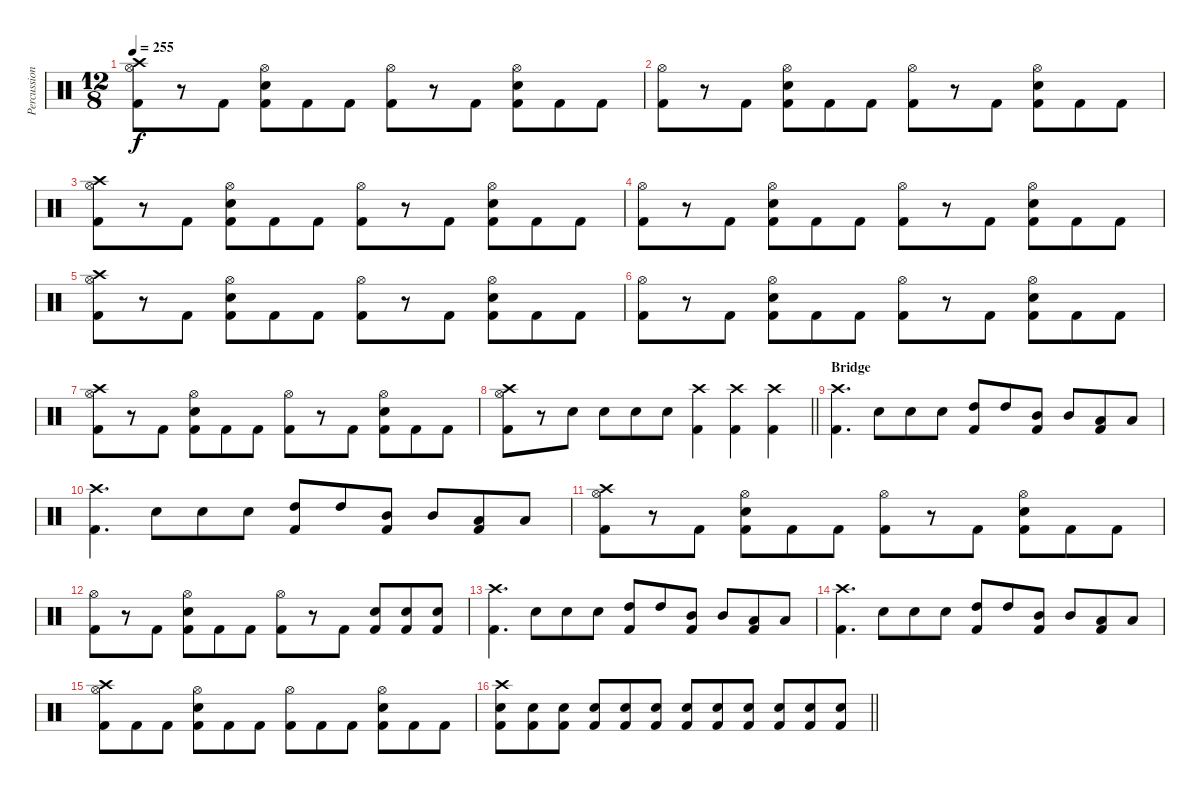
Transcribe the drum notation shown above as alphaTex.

\track ("Percussion" "Percussion") {instrument percussion}
\staff {score}
\articulation defaults
\ts (12 8)
\tempo 255
\clef neutral
\ks c
("Crash high (hit)" "Hi-Hat (open)" "Kick (hit) 2").8{dy f} r.8 "Kick (hit) 2".8 ("Hi-Hat (open)" "Snare (hit) 2" "Kick (hit) 2").8 "Kick (hit) 2".8 "Kick (hit) 2".8 ("Hi-Hat (open)" "Kick (hit) 2").8 r.8 "Kick (hit) 2".8 ("Hi-Hat (open)" "Snare (hit) 2" "Kick (hit) 2").8 "Kick (hit) 2".8 "Kick (hit) 2".8 |
("Hi-Hat (open)" "Kick (hit) 2").8 r.8 "Kick (hit) 2".8 ("Hi-Hat (open)" "Snare (hit) 2" "Kick (hit) 2").8 "Kick (hit) 2".8 "Kick (hit) 2".8 ("Hi-Hat (open)" "Kick (hit) 2").8 r.8 "Kick (hit) 2".8 ("Hi-Hat (open)" "Snare (hit) 2" "Kick (hit) 2").8 "Kick (hit) 2".8 "Kick (hit) 2".8 |
("Crash high (hit)" "Hi-Hat (open)" "Kick (hit) 2").8 r.8 "Kick (hit) 2".8 ("Hi-Hat (open)" "Snare (hit) 2" "Kick (hit) 2").8 "Kick (hit) 2".8 "Kick (hit) 2".8 ("Hi-Hat (open)" "Kick (hit) 2").8 r.8 "Kick (hit) 2".8 ("Hi-Hat (open)" "Snare (hit) 2" "Kick (hit) 2").8 "Kick (hit) 2".8 "Kick (hit) 2".8 |
("Hi-Hat (open)" "Kick (hit) 2").8 r.8 "Kick (hit) 2".8 ("Hi-Hat (open)" "Snare (hit) 2" "Kick (hit) 2").8 "Kick (hit) 2".8 "Kick (hit) 2".8 ("Hi-Hat (open)" "Kick (hit) 2").8 r.8 "Kick (hit) 2".8 ("Hi-Hat (open)" "Snare (hit) 2" "Kick (hit) 2").8 "Kick (hit) 2".8 "Kick (hit) 2".8 |
("Crash high (hit)" "Hi-Hat (open)" "Kick (hit) 2").8 r.8 "Kick (hit) 2".8 ("Hi-Hat (open)" "Snare (hit) 2" "Kick (hit) 2").8 "Kick (hit) 2".8 "Kick (hit) 2".8 ("Hi-Hat (open)" "Kick (hit) 2").8 r.8 "Kick (hit) 2".8 ("Hi-Hat (open)" "Snare (hit) 2" "Kick (hit) 2").8 "Kick (hit) 2".8 "Kick (hit) 2".8 |
("Hi-Hat (open)" "Kick (hit) 2").8 r.8 "Kick (hit) 2".8 ("Hi-Hat (open)" "Snare (hit) 2" "Kick (hit) 2").8 "Kick (hit) 2".8 "Kick (hit) 2".8 ("Hi-Hat (open)" "Kick (hit) 2").8 r.8 "Kick (hit) 2".8 ("Hi-Hat (open)" "Snare (hit) 2" "Kick (hit) 2").8 "Kick (hit) 2".8 "Kick (hit) 2".8 |
("Crash high (hit)" "Hi-Hat (open)" "Kick (hit) 2").8 r.8 "Kick (hit) 2".8 ("Hi-Hat (open)" "Snare (hit) 2" "Kick (hit) 2").8 "Kick (hit) 2".8 "Kick (hit) 2".8 ("Hi-Hat (open)" "Kick (hit) 2").8 r.8 "Kick (hit) 2".8 ("Hi-Hat (open)" "Snare (hit) 2" "Kick (hit) 2").8 "Kick (hit) 2".8 "Kick (hit) 2".8 |
\barLineRight lightlight
("Crash high (hit)" "Hi-Hat (open)" "Kick (hit) 2").8 r.8 "Snare (hit) 2".8 "Snare (hit) 2".8 "Snare (hit) 2".8 "Snare (hit) 2".8 ("Crash high (hit)" "Kick (hit) 2").4 ("Crash high (hit)" "Kick (hit) 2").4 ("Crash high (hit)" "Kick (hit) 2").4 |
\section ("" "Bridge")
("Crash high (hit)" "Kick (hit) 2").4{d} "Snare (hit) 2".8 "Snare (hit) 2".8 "Snare (hit) 2".8 ("High Tom (hit)" "Kick (hit) 2").8 "High Tom (hit)".8 ("Mid Tom (hit)" "Kick (hit) 2").8 "Mid Tom (hit)".8 ("Low Tom (hit)" "Kick (hit) 2").8 "Low Tom (hit)".8 |
("Crash high (hit)" "Kick (hit) 2").4{d} "Snare (hit) 2".8 "Snare (hit) 2".8 "Snare (hit) 2".8 ("High Tom (hit)" "Kick (hit) 2").8 "High Tom (hit)".8 ("Mid Tom (hit)" "Kick (hit) 2").8 "Mid Tom (hit)".8 ("Low Tom (hit)" "Kick (hit) 2").8 "Low Tom (hit)".8 |
("Crash high (hit)" "Hi-Hat (open)" "Kick (hit) 2").8 r.8 "Kick (hit) 2".8 ("Hi-Hat (open)" "Snare (hit) 2" "Kick (hit) 2").8 "Kick (hit) 2".8 "Kick (hit) 2".8 ("Hi-Hat (open)" "Kick (hit) 2").8 r.8 "Kick (hit) 2".8 ("Hi-Hat (open)" "Snare (hit) 2" "Kick (hit) 2").8 "Kick (hit) 2".8 "Kick (hit) 2".8 |
("Hi-Hat (open)" "Kick (hit) 2").8 r.8 "Kick (hit) 2".8 ("Hi-Hat (open)" "Snare (hit) 2" "Kick (hit) 2").8 "Kick (hit) 2".8 "Kick (hit) 2".8 ("Hi-Hat (open)" "Kick (hit) 2").8 r.8 "Kick (hit) 2".8 ("Snare (hit) 2" "Kick (hit) 2").8 ("Snare (hit) 2" "Kick (hit) 2").8 ("Snare (hit) 2" "Kick (hit) 2").8 |
("Crash high (hit)" "Kick (hit) 2").4{d} "Snare (hit) 2".8 "Snare (hit) 2".8 "Snare (hit) 2".8 ("High Tom (hit)" "Kick (hit) 2").8 "High Tom (hit)".8 ("Mid Tom (hit)" "Kick (hit) 2").8 "Mid Tom (hit)".8 ("Low Tom (hit)" "Kick (hit) 2").8 "Low Tom (hit)".8 |
("Crash high (hit)" "Kick (hit) 2").4{d} "Snare (hit) 2".8 "Snare (hit) 2".8 "Snare (hit) 2".8 ("High Tom (hit)" "Kick (hit) 2").8 "High Tom (hit)".8 ("Mid Tom (hit)" "Kick (hit) 2").8 "Mid Tom (hit)".8 ("Low Tom (hit)" "Kick (hit) 2").8 "Low Tom (hit)".8 |
("Crash high (hit)" "Hi-Hat (open)" "Kick (hit) 2").8 "Kick (hit) 2".8 "Kick (hit) 2".8 ("Hi-Hat (open)" "Snare (hit) 2" "Kick (hit) 2").8 "Kick (hit) 2".8 "Kick (hit) 2".8 ("Hi-Hat (open)" "Kick (hit) 2").8 "Kick (hit) 2".8 "Kick (hit) 2".8 ("Hi-Hat (open)" "Snare (hit) 2" "Kick (hit) 2").8 "Kick (hit) 2".8 "Kick (hit) 2".8 |
\barLineRight lightlight
("Crash high (hit)" "Snare (hit) 2" "Kick (hit) 2").8 ("Snare (hit) 2" "Kick (hit) 2").8 ("Snare (hit) 2" "Kick (hit) 2").8 ("Snare (hit) 2" "Kick (hit) 2").8 ("Snare (hit) 2" "Kick (hit) 2").8 ("Snare (hit) 2" "Kick (hit) 2").8 ("Snare (hit) 2" "Kick (hit) 2").8 ("Snare (hit) 2" "Kick (hit) 2").8 ("Snare (hit) 2" "Kick (hit) 2").8 ("Snare (hit) 2" "Kick (hit) 2").8 ("Snare (hit) 2" "Kick (hit) 2").8 ("Snare (hit) 2" "Kick (hit) 2").8
